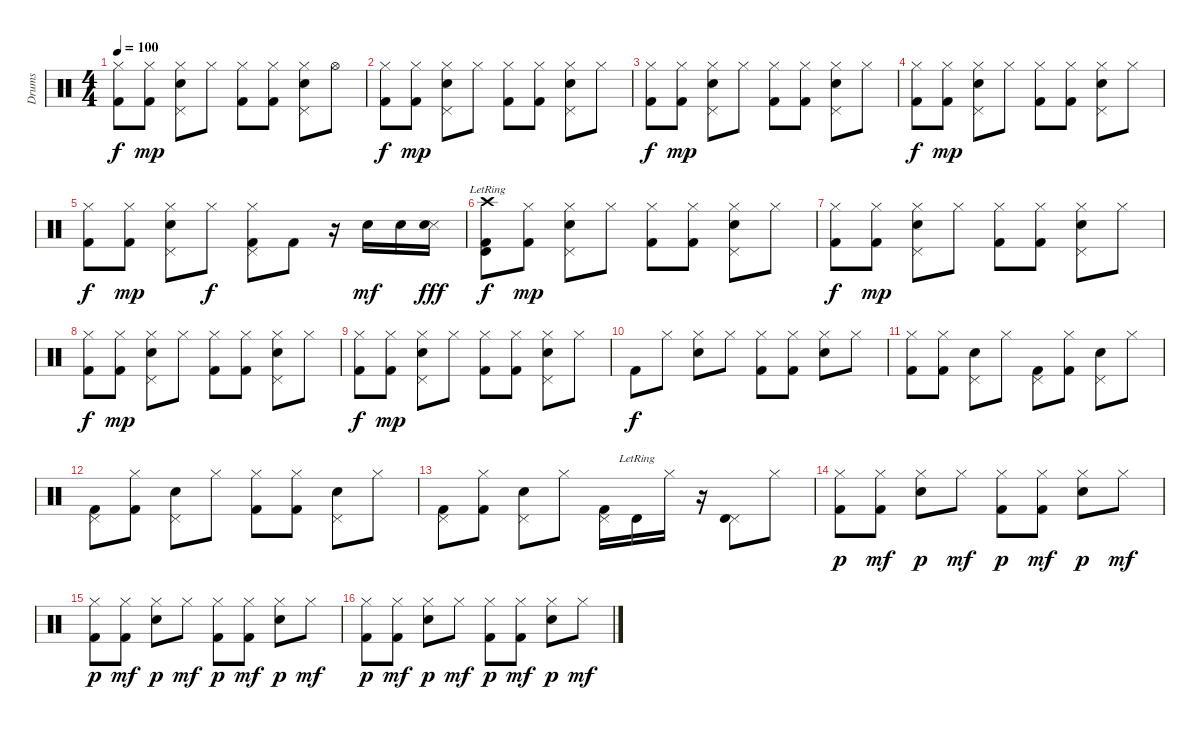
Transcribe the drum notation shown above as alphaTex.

\track ("Drums" "Drums") {instrument percussion}
\staff {score}
\articulation defaults
\ts (4 4)
\tempo 100
\clef neutral
\ks c
("Hi-Hat (closed)" "Kick (hit) 2").8{dy f} ("Hi-Hat (closed)" "Kick (hit) 2").8{dy mp} ("Hi-Hat (closed)" "Pedal Hi-Hat (hit)" "Electric Snare (hit)").8 "Hi-Hat (closed)".8 ("Hi-Hat (closed)" "Kick (hit) 2").8 ("Hi-Hat (closed)" "Kick (hit) 2").8 ("Hi-Hat (closed)" "Pedal Hi-Hat (hit)" "Electric Snare (hit)").8 "Hi-Hat (open)".8 |
("Hi-Hat (closed)" "Kick (hit) 2").8{dy f} ("Hi-Hat (closed)" "Kick (hit) 2").8{dy mp} ("Hi-Hat (closed)" "Pedal Hi-Hat (hit)" "Electric Snare (hit)").8 "Hi-Hat (closed)".8 ("Hi-Hat (closed)" "Kick (hit) 2").8 ("Hi-Hat (closed)" "Kick (hit) 2").8 ("Hi-Hat (closed)" "Pedal Hi-Hat (hit)" "Electric Snare (hit)").8 "Hi-Hat (closed)".8 |
("Hi-Hat (closed)" "Kick (hit) 2").8{dy f} ("Hi-Hat (closed)" "Kick (hit) 2").8{dy mp} ("Hi-Hat (closed)" "Pedal Hi-Hat (hit)" "Electric Snare (hit)").8 "Hi-Hat (closed)".8 ("Hi-Hat (closed)" "Kick (hit) 2").8 ("Hi-Hat (closed)" "Kick (hit) 2").8 ("Hi-Hat (closed)" "Pedal Hi-Hat (hit)" "Electric Snare (hit)").8 "Hi-Hat (closed)".8 |
("Hi-Hat (closed)" "Kick (hit) 2").8{dy f} ("Hi-Hat (closed)" "Kick (hit) 2").8{dy mp} ("Hi-Hat (closed)" "Pedal Hi-Hat (hit)" "Electric Snare (hit)").8 "Hi-Hat (closed)".8 ("Hi-Hat (closed)" "Kick (hit) 2").8 ("Hi-Hat (closed)" "Kick (hit) 2").8 ("Hi-Hat (closed)" "Pedal Hi-Hat (hit)" "Electric Snare (hit)").8 "Hi-Hat (closed)".8 |
("Hi-Hat (closed)" "Kick (hit) 2").8{dy f} ("Hi-Hat (closed)" "Kick (hit) 2").8{dy mp} ("Hi-Hat (closed)" "Pedal Hi-Hat (hit)" "Electric Snare (hit)").8 "Hi-Hat (closed)".8{dy f} ("Hi-Hat (closed)" "Pedal Hi-Hat (hit)" "Kick (hit) 2").8 "Kick (hit) 2".8 r.16 "Electric Snare (hit)".16{dy mf} "Electric Snare (hit)".16 ("Snare (side stick) 3" "Electric Snare (hit)").16{dy fff} |
("Crash high (hit)" "Timbale high (hit)"{lr} "Kick (hit) 2").8{dy f} ("Hi-Hat (closed)" "Kick (hit) 2").8{dy mp} ("Hi-Hat (closed)" "Pedal Hi-Hat (hit)" "Electric Snare (hit)").8 "Hi-Hat (closed)".8 ("Hi-Hat (closed)" "Kick (hit) 2").8 ("Hi-Hat (closed)" "Kick (hit) 2").8 ("Hi-Hat (closed)" "Pedal Hi-Hat (hit)" "Electric Snare (hit)").8 "Hi-Hat (closed)".8 |
("Hi-Hat (closed)" "Kick (hit) 2").8{dy f} ("Hi-Hat (closed)" "Kick (hit) 2").8{dy mp} ("Hi-Hat (closed)" "Pedal Hi-Hat (hit)" "Electric Snare (hit)").8 "Hi-Hat (closed)".8 ("Hi-Hat (closed)" "Kick (hit) 2").8 ("Hi-Hat (closed)" "Kick (hit) 2").8 ("Hi-Hat (closed)" "Pedal Hi-Hat (hit)" "Electric Snare (hit)").8 "Hi-Hat (closed)".8 |
("Hi-Hat (closed)" "Kick (hit) 2").8{dy f} ("Hi-Hat (closed)" "Kick (hit) 2").8{dy mp} ("Hi-Hat (closed)" "Pedal Hi-Hat (hit)" "Electric Snare (hit)").8 "Hi-Hat (closed)".8 ("Hi-Hat (closed)" "Kick (hit) 2").8 ("Hi-Hat (closed)" "Kick (hit) 2").8 ("Hi-Hat (closed)" "Pedal Hi-Hat (hit)" "Electric Snare (hit)").8 "Hi-Hat (closed)".8 |
("Hi-Hat (closed)" "Kick (hit) 2").8{dy f} ("Hi-Hat (closed)" "Kick (hit) 2").8{dy mp} ("Hi-Hat (closed)" "Pedal Hi-Hat (hit)" "Electric Snare (hit)").8 "Hi-Hat (closed)".8 ("Hi-Hat (closed)" "Kick (hit) 2").8 ("Hi-Hat (closed)" "Kick (hit) 2").8 ("Hi-Hat (closed)" "Pedal Hi-Hat (hit)" "Electric Snare (hit)").8 "Hi-Hat (closed)".8 |
"Kick (hit) 2".8{dy f} "Hi-Hat (closed)".8 ("Hi-Hat (closed)" "Snare (hit) 2").8 "Hi-Hat (closed)".8 ("Hi-Hat (closed)" "Kick (hit) 2").8 ("Hi-Hat (closed)" "Kick (hit) 2").8 ("Hi-Hat (closed)" "Snare (hit) 2").8 "Hi-Hat (closed)".8 |
("Hi-Hat (closed)" "Kick (hit) 2").8 ("Hi-Hat (closed)" "Kick (hit) 2").8 ("Pedal Hi-Hat (hit)" "Snare (hit) 2").8 "Hi-Hat (closed)".8 ("Pedal Hi-Hat (hit)" "Kick (hit) 2").8 ("Hi-Hat (closed)" "Kick (hit) 2").8 ("Pedal Hi-Hat (hit)" "Snare (hit) 2").8 "Hi-Hat (closed)".8 |
("Pedal Hi-Hat (hit)" "Kick (hit) 2").8 ("Hi-Hat (closed)" "Kick (hit) 2").8 ("Pedal Hi-Hat (hit)" "Snare (hit) 2").8 "Hi-Hat (closed)".8 ("Hi-Hat (closed)" "Kick (hit) 2").8 ("Hi-Hat (closed)" "Kick (hit) 2").8 ("Pedal Hi-Hat (hit)" "Snare (hit) 2").8 "Hi-Hat (closed)".8 |
("Pedal Hi-Hat (hit)" "Kick (hit) 2").8 ("Hi-Hat (closed)" "Kick (hit) 2").8 ("Pedal Hi-Hat (hit)" "Snare (hit) 2").8 "Hi-Hat (closed)".8 ("Pedal Hi-Hat (hit)" "Kick (hit) 2").16 "Timbale high (hit)"{lr}.16 "Hi-Hat (closed)".16 r.16 ("Pedal Hi-Hat (hit)" "Timbale high (hit)").8 "Hi-Hat (closed)".8 |
("Hi-Hat (closed)" "Kick (hit) 2").8{dy p} ("Hi-Hat (closed)" "Kick (hit) 2").8{dy mf} ("Hi-Hat (closed)" "Snare (hit) 2").8{dy p} "Hi-Hat (closed)".8{dy mf} ("Hi-Hat (closed)" "Kick (hit) 2").8{dy p} ("Hi-Hat (closed)" "Kick (hit) 2").8{dy mf} ("Hi-Hat (closed)" "Snare (hit) 2").8{dy p} "Hi-Hat (closed)".8{dy mf} |
("Hi-Hat (closed)" "Kick (hit) 2").8{dy p} ("Hi-Hat (closed)" "Kick (hit) 2").8{dy mf} ("Hi-Hat (closed)" "Snare (hit) 2").8{dy p} "Hi-Hat (closed)".8{dy mf} ("Hi-Hat (closed)" "Kick (hit) 2").8{dy p} ("Hi-Hat (closed)" "Kick (hit) 2").8{dy mf} ("Hi-Hat (closed)" "Snare (hit) 2").8{dy p} "Hi-Hat (closed)".8{dy mf} |
("Hi-Hat (closed)" "Kick (hit) 2").8{dy p} ("Hi-Hat (closed)" "Kick (hit) 2").8{dy mf} ("Hi-Hat (closed)" "Snare (hit) 2").8{dy p} "Hi-Hat (closed)".8{dy mf} ("Hi-Hat (closed)" "Kick (hit) 2").8{dy p} ("Hi-Hat (closed)" "Kick (hit) 2").8{dy mf} ("Hi-Hat (closed)" "Snare (hit) 2").8{dy p} "Hi-Hat (closed)".8{dy mf}
